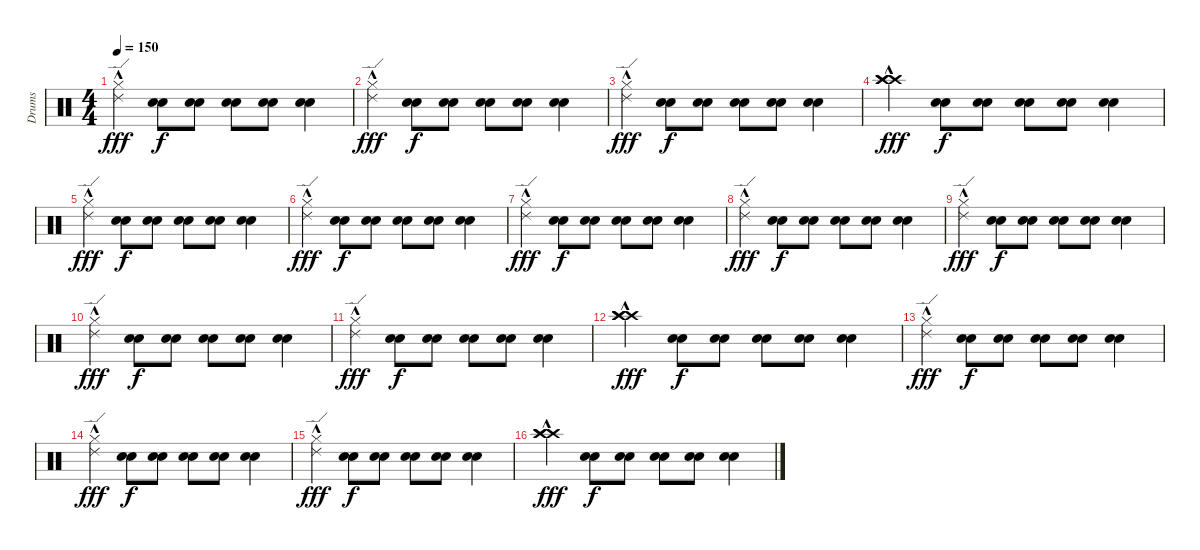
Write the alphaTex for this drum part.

\track ("Drums" "Drums") {instrument percussion}
\staff {score}
\articulation defaults
\ts (4 4)
\tempo 150
\clef neutral
\ks c
("Hi-Hat (closed)" "Ride (edge) 2"{hac}).4{dy fff} ("Electric Snare (hit)" "Electric Snare (hit)").8{dy f} ("Electric Snare (hit)" "Electric Snare (hit)").8 ("Electric Snare (hit)" "Electric Snare (hit)").8 ("Electric Snare (hit)" "Electric Snare (hit)").8 ("Electric Snare (hit)" "Electric Snare (hit)").4 |
("Hi-Hat (closed)" "Ride (edge) 2"{hac}).4{dy fff} ("Electric Snare (hit)" "Electric Snare (hit)").8{dy f} ("Electric Snare (hit)" "Electric Snare (hit)").8 ("Electric Snare (hit)" "Electric Snare (hit)").8 ("Electric Snare (hit)" "Electric Snare (hit)").8 ("Electric Snare (hit)" "Electric Snare (hit)").4 |
("Hi-Hat (closed)" "Ride (edge) 2"{hac}).4{dy fff} ("Electric Snare (hit)" "Electric Snare (hit)").8{dy f} ("Electric Snare (hit)" "Electric Snare (hit)").8 ("Electric Snare (hit)" "Electric Snare (hit)").8 ("Electric Snare (hit)" "Electric Snare (hit)").8 ("Electric Snare (hit)" "Electric Snare (hit)").4 |
("Crash high (hit)"{hac} "Crash high (hit)"{hac} "Crash high (hit)"{hac}).4{dy fff} ("Electric Snare (hit)" "Electric Snare (hit)").8{dy f} ("Electric Snare (hit)" "Electric Snare (hit)").8 ("Electric Snare (hit)" "Electric Snare (hit)").8 ("Electric Snare (hit)" "Electric Snare (hit)").8 ("Electric Snare (hit)" "Electric Snare (hit)").4 |
("Hi-Hat (closed)" "Ride (edge) 2"{hac}).4{dy fff} ("Electric Snare (hit)" "Electric Snare (hit)").8{dy f} ("Electric Snare (hit)" "Electric Snare (hit)").8 ("Electric Snare (hit)" "Electric Snare (hit)").8 ("Electric Snare (hit)" "Electric Snare (hit)").8 ("Electric Snare (hit)" "Electric Snare (hit)").4 |
("Hi-Hat (closed)" "Ride (edge) 2"{hac}).4{dy fff} ("Electric Snare (hit)" "Electric Snare (hit)").8{dy f} ("Electric Snare (hit)" "Electric Snare (hit)").8 ("Electric Snare (hit)" "Electric Snare (hit)").8 ("Electric Snare (hit)" "Electric Snare (hit)").8 ("Electric Snare (hit)" "Electric Snare (hit)").4 |
("Hi-Hat (closed)" "Ride (edge) 2"{hac}).4{dy fff} ("Electric Snare (hit)" "Electric Snare (hit)").8{dy f} ("Electric Snare (hit)" "Electric Snare (hit)").8 ("Electric Snare (hit)" "Electric Snare (hit)").8 ("Electric Snare (hit)" "Electric Snare (hit)").8 ("Electric Snare (hit)" "Electric Snare (hit)").4 |
("Hi-Hat (closed)" "Ride (edge) 2"{hac}).4{dy fff} ("Electric Snare (hit)" "Electric Snare (hit)").8{dy f} ("Electric Snare (hit)" "Electric Snare (hit)").8 ("Electric Snare (hit)" "Electric Snare (hit)").8 ("Electric Snare (hit)" "Electric Snare (hit)").8 ("Electric Snare (hit)" "Electric Snare (hit)").4 |
("Hi-Hat (closed)" "Ride (edge) 2"{hac}).4{dy fff} ("Electric Snare (hit)" "Electric Snare (hit)").8{dy f} ("Electric Snare (hit)" "Electric Snare (hit)").8 ("Electric Snare (hit)" "Electric Snare (hit)").8 ("Electric Snare (hit)" "Electric Snare (hit)").8 ("Electric Snare (hit)" "Electric Snare (hit)").4 |
("Hi-Hat (closed)" "Ride (edge) 2"{hac}).4{dy fff} ("Electric Snare (hit)" "Electric Snare (hit)").8{dy f} ("Electric Snare (hit)" "Electric Snare (hit)").8 ("Electric Snare (hit)" "Electric Snare (hit)").8 ("Electric Snare (hit)" "Electric Snare (hit)").8 ("Electric Snare (hit)" "Electric Snare (hit)").4 |
("Hi-Hat (closed)" "Ride (edge) 2"{hac}).4{dy fff} ("Electric Snare (hit)" "Electric Snare (hit)").8{dy f} ("Electric Snare (hit)" "Electric Snare (hit)").8 ("Electric Snare (hit)" "Electric Snare (hit)").8 ("Electric Snare (hit)" "Electric Snare (hit)").8 ("Electric Snare (hit)" "Electric Snare (hit)").4 |
("Crash high (hit)"{hac} "Crash high (hit)"{hac} "Crash high (hit)"{hac}).4{dy fff} ("Electric Snare (hit)" "Electric Snare (hit)").8{dy f} ("Electric Snare (hit)" "Electric Snare (hit)").8 ("Electric Snare (hit)" "Electric Snare (hit)").8 ("Electric Snare (hit)" "Electric Snare (hit)").8 ("Electric Snare (hit)" "Electric Snare (hit)").4 |
("Hi-Hat (closed)" "Ride (edge) 2"{hac}).4{dy fff} ("Electric Snare (hit)" "Electric Snare (hit)").8{dy f} ("Electric Snare (hit)" "Electric Snare (hit)").8 ("Electric Snare (hit)" "Electric Snare (hit)").8 ("Electric Snare (hit)" "Electric Snare (hit)").8 ("Electric Snare (hit)" "Electric Snare (hit)").4 |
("Hi-Hat (closed)" "Ride (edge) 2"{hac}).4{dy fff} ("Electric Snare (hit)" "Electric Snare (hit)").8{dy f} ("Electric Snare (hit)" "Electric Snare (hit)").8 ("Electric Snare (hit)" "Electric Snare (hit)").8 ("Electric Snare (hit)" "Electric Snare (hit)").8 ("Electric Snare (hit)" "Electric Snare (hit)").4 |
("Hi-Hat (closed)" "Ride (edge) 2"{hac}).4{dy fff} ("Electric Snare (hit)" "Electric Snare (hit)").8{dy f} ("Electric Snare (hit)" "Electric Snare (hit)").8 ("Electric Snare (hit)" "Electric Snare (hit)").8 ("Electric Snare (hit)" "Electric Snare (hit)").8 ("Electric Snare (hit)" "Electric Snare (hit)").4 |
("Crash high (hit)"{hac} "Crash high (hit)"{hac} "Crash high (hit)"{hac}).4{dy fff} ("Electric Snare (hit)" "Electric Snare (hit)").8{dy f} ("Electric Snare (hit)" "Electric Snare (hit)").8 ("Electric Snare (hit)" "Electric Snare (hit)").8 ("Electric Snare (hit)" "Electric Snare (hit)").8 ("Electric Snare (hit)" "Electric Snare (hit)").4
